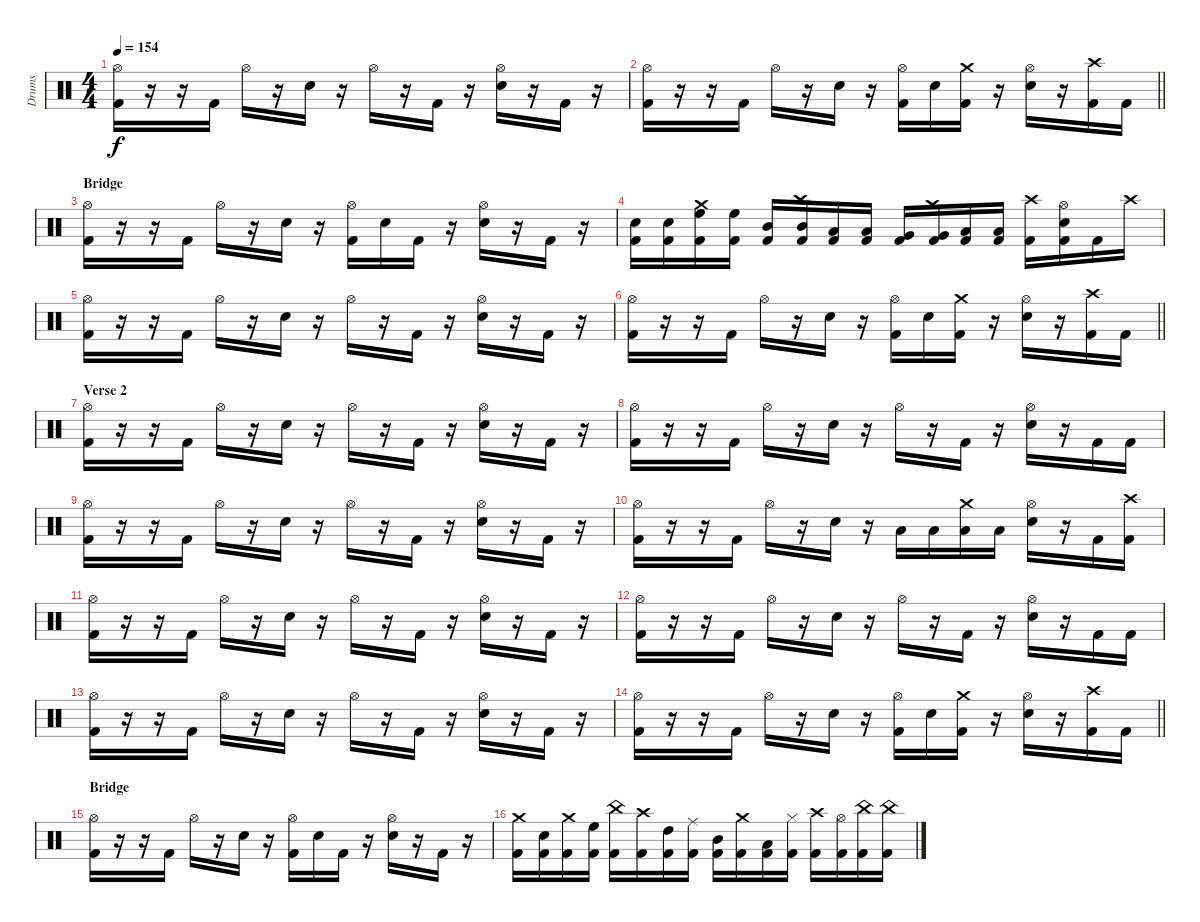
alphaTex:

\track ("Drums" "Drums") {instrument percussion}
\staff {score}
\articulation defaults
\ts (4 4)
\tempo 154
\clef neutral
\ks c
("Hi-Hat (open)" "Kick (hit) 2").16{dy f} r.16 r.16 "Kick (hit) 2".16 "Hi-Hat (open)".16 r.16 "Snare (hit) 2".16 r.16 "Hi-Hat (open)".16 r.16 "Kick (hit) 2".16 r.16 ("Hi-Hat (open)" "Snare (hit) 2").16 r.16 "Kick (hit) 2".16 r.16 |
\barLineRight lightlight
("Hi-Hat (open)" "Kick (hit) 2").16 r.16 r.16 "Kick (hit) 2".16 "Hi-Hat (open)".16 r.16 "Snare (hit) 2".16 r.16 ("Hi-Hat (open)" "Kick (hit) 2").16 "Snare (hit) 2".16 ("Crash medium (hit)" "Kick (hit) 2").16 r.16 ("Hi-Hat (open)" "Snare (hit) 2").16 r.16 ("Crash high (hit)" "Kick (hit) 2").16 "Kick (hit) 2".16 |
\section ("" "Bridge")
("Hi-Hat (open)" "Kick (hit) 2").16 r.16 r.16 "Kick (hit) 2".16 "Hi-Hat (open)".16 r.16 "Snare (hit) 2".16 r.16 ("Hi-Hat (open)" "Kick (hit) 2").16 "Snare (hit) 2".16 "Kick (hit) 2".16 r.16 ("Hi-Hat (open)" "Snare (hit) 2").16 r.16 "Kick (hit) 2".16 r.16 |
("Snare (hit) 2" "Kick (hit) 2").16 ("Snare (hit) 2" "Kick (hit) 2").16 ("Crash medium (hit)" "High Floor Tom (hit)" "Kick (hit) 2").16 ("High Floor Tom (hit)" "Kick (hit) 2").16 ("Mid Tom (hit)" "Kick (hit) 2").16 ("Crash high (hit)" "Mid Tom (hit)" "Kick (hit) 2").16 ("Low Tom (hit)" "Kick (hit) 2").16 ("Low Tom (hit)" "Kick (hit) 2").16 ("Very Low Tom (hit)" "Kick (hit) 2").16 ("Crash medium (hit)" "Very Low Tom (hit)" "Kick (hit) 2").16 ("Low Floor Tom (hit)" "Kick (hit) 2").16 ("Low Floor Tom (hit)" "Kick (hit) 2").16 ("Crash high (hit)" "Kick (hit) 2").16 ("Hi-Hat (open)" "Snare (hit) 2" "Kick (hit) 2").16 "Kick (hit) 2".16 "Crash high (hit)".16 |
("Hi-Hat (open)" "Kick (hit) 2").16 r.16 r.16 "Kick (hit) 2".16 "Hi-Hat (open)".16 r.16 "Snare (hit) 2".16 r.16 "Hi-Hat (open)".16 r.16 "Kick (hit) 2".16 r.16 ("Hi-Hat (open)" "Snare (hit) 2").16 r.16 "Kick (hit) 2".16 r.16 |
\barLineRight lightlight
("Hi-Hat (open)" "Kick (hit) 2").16 r.16 r.16 "Kick (hit) 2".16 "Hi-Hat (open)".16 r.16 "Snare (hit) 2".16 r.16 ("Hi-Hat (open)" "Kick (hit) 2").16 "Snare (hit) 2".16 ("Crash medium (hit)" "Kick (hit) 2").16 r.16 ("Hi-Hat (open)" "Snare (hit) 2").16 r.16 ("Crash high (hit)" "Kick (hit) 2").16 "Kick (hit) 2".16 |
\section ("" "Verse 2")
("Hi-Hat (open)" "Kick (hit) 2").16 r.16 r.16 "Kick (hit) 2".16 "Hi-Hat (open)".16 r.16 "Snare (hit) 2".16 r.16 "Hi-Hat (open)".16 r.16 "Kick (hit) 2".16 r.16 ("Hi-Hat (open)" "Snare (hit) 2").16 r.16 "Kick (hit) 2".16 r.16 |
("Hi-Hat (open)" "Kick (hit) 2").16 r.16 r.16 "Kick (hit) 2".16 "Hi-Hat (open)".16 r.16 "Snare (hit) 2".16 r.16 "Hi-Hat (open)".16 r.16 "Kick (hit) 2".16 r.16 ("Hi-Hat (open)" "Snare (hit) 2").16 r.16 "Kick (hit) 2".16 "Kick (hit) 2".16 |
("Hi-Hat (open)" "Kick (hit) 2").16 r.16 r.16 "Kick (hit) 2".16 "Hi-Hat (open)".16 r.16 "Snare (hit) 2".16 r.16 "Hi-Hat (open)".16 r.16 "Kick (hit) 2".16 r.16 ("Hi-Hat (open)" "Snare (hit) 2").16 r.16 "Kick (hit) 2".16 r.16 |
("Hi-Hat (open)" "Kick (hit) 2").16 r.16 r.16 "Kick (hit) 2".16 "Hi-Hat (open)".16 r.16 "Snare (hit) 2".16 r.16 "Low Tom (hit)".16 "Low Tom (hit)".16 ("Crash medium (hit)" "Low Floor Tom (hit)").16 "Low Floor Tom (hit)".16 ("Hi-Hat (open)" "Snare (hit) 2").16 r.16 "Kick (hit) 2".16 ("Crash high (hit)" "Kick (hit) 2").16 |
("Hi-Hat (open)" "Kick (hit) 2").16 r.16 r.16 "Kick (hit) 2".16 "Hi-Hat (open)".16 r.16 "Snare (hit) 2".16 r.16 "Hi-Hat (open)".16 r.16 "Kick (hit) 2".16 r.16 ("Hi-Hat (open)" "Snare (hit) 2").16 r.16 "Kick (hit) 2".16 r.16 |
("Hi-Hat (open)" "Kick (hit) 2").16 r.16 r.16 "Kick (hit) 2".16 "Hi-Hat (open)".16 r.16 "Snare (hit) 2".16 r.16 "Hi-Hat (open)".16 r.16 "Kick (hit) 2".16 r.16 ("Hi-Hat (open)" "Snare (hit) 2").16 r.16 "Kick (hit) 2".16 "Kick (hit) 2".16 |
("Hi-Hat (open)" "Kick (hit) 2").16 r.16 r.16 "Kick (hit) 2".16 "Hi-Hat (open)".16 r.16 "Snare (hit) 2".16 r.16 "Hi-Hat (open)".16 r.16 "Kick (hit) 2".16 r.16 ("Hi-Hat (open)" "Snare (hit) 2").16 r.16 "Kick (hit) 2".16 r.16 |
\barLineRight lightlight
("Hi-Hat (open)" "Kick (hit) 2").16 r.16 r.16 "Kick (hit) 2".16 "Hi-Hat (open)".16 r.16 "Snare (hit) 2".16 r.16 ("Hi-Hat (open)" "Kick (hit) 2").16 "Snare (hit) 2".16 ("Crash medium (hit)" "Kick (hit) 2").16 r.16 ("Hi-Hat (open)" "Snare (hit) 2").16 r.16 ("Crash high (hit)" "Kick (hit) 2").16 "Kick (hit) 2".16 |
\section ("" "Bridge")
("Hi-Hat (open)" "Kick (hit) 2").16 r.16 r.16 "Kick (hit) 2".16 "Hi-Hat (open)".16 r.16 "Snare (hit) 2".16 r.16 ("Hi-Hat (open)" "Kick (hit) 2").16 "Snare (hit) 2".16 "Kick (hit) 2".16 r.16 ("Hi-Hat (open)" "Snare (hit) 2").16 r.16 "Kick (hit) 2".16 r.16 |
("Crash medium (hit)" "Kick (hit) 2").16 ("Snare (hit) 2" "Kick (hit) 2").16 ("Crash medium (hit)" "Kick (hit) 2").16 ("High Floor Tom (hit)" "Kick (hit) 2").16 ("China (hit)" "Kick (hit) 2").16 ("Crash high (hit)" "Kick (hit) 2").16 ("High Tom (hit)" "Kick (hit) 2").16 ("Ride (middle)" "Kick (hit) 2").16 ("Mid Tom (hit)" "Kick (hit) 2").16 ("Crash medium (hit)" "Kick (hit) 2").16 ("Low Tom (hit)" "Kick (hit) 2").16 ("Hi-Hat (closed)" "Kick (hit) 2").16 ("Crash high (hit)" "Kick (hit) 2").16 ("Hi-Hat (open)" "Kick (hit) 2").16 ("China (hit)" "Kick (hit) 2").16 ("China (hit)" "Kick (hit) 2").16
